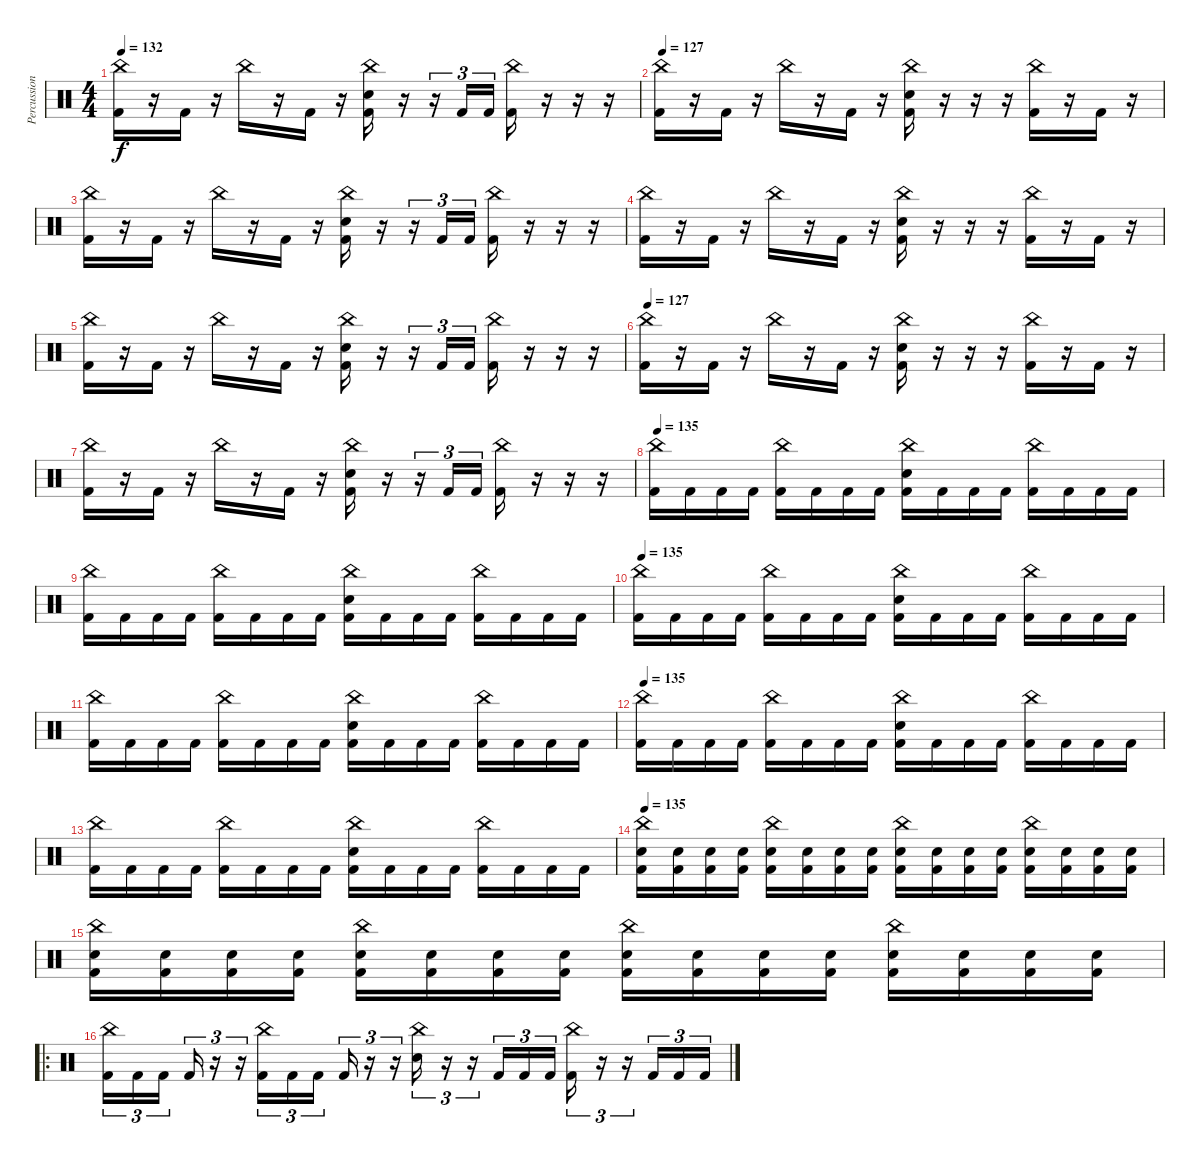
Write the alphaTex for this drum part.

\track ("Percussion" "Percussion") {instrument percussion}
\staff {score}
\articulation defaults
\ts (4 4)
\tempo 132
\clef neutral
\ks c
("China (hit)" "Kick (hit) 2").16{dy f} r.16 "Kick (hit) 2".16 r.16 "China (hit)".16 r.16 "Kick (hit) 2".16 r.16 ("China (hit)" "Kick (hit) 2" "Electric Snare (hit)").16 r.16 r.16{tu (3 2)} "Kick (hit) 2".16{tu (3 2)} "Kick (hit) 2".16{tu (3 2)} ("China (hit)" "Kick (hit) 2").16 r.16 r.16 r.16 |
\tempo 127
("China (hit)" "Kick (hit) 2").16 r.16 "Kick (hit) 2".16 r.16 "China (hit)".16 r.16 "Kick (hit) 2".16 r.16 ("China (hit)" "Kick (hit) 2" "Electric Snare (hit)").16 r.16 r.16 r.16 ("China (hit)" "Kick (hit) 2").16 r.16 "Kick (hit) 2".16 r.16 |
("China (hit)" "Kick (hit) 2").16 r.16 "Kick (hit) 2".16 r.16 "China (hit)".16 r.16 "Kick (hit) 2".16 r.16 ("China (hit)" "Kick (hit) 2" "Electric Snare (hit)").16 r.16 r.16{tu (3 2)} "Kick (hit) 2".16{tu (3 2)} "Kick (hit) 2".16{tu (3 2)} ("China (hit)" "Kick (hit) 2").16 r.16 r.16 r.16 |
("China (hit)" "Kick (hit) 2").16 r.16 "Kick (hit) 2".16 r.16 "China (hit)".16 r.16 "Kick (hit) 2".16 r.16 ("China (hit)" "Kick (hit) 2" "Electric Snare (hit)").16 r.16 r.16 r.16 ("China (hit)" "Kick (hit) 2").16 r.16 "Kick (hit) 2".16 r.16 |
("China (hit)" "Kick (hit) 2").16 r.16 "Kick (hit) 2".16 r.16 "China (hit)".16 r.16 "Kick (hit) 2".16 r.16 ("China (hit)" "Kick (hit) 2" "Electric Snare (hit)").16 r.16 r.16{tu (3 2)} "Kick (hit) 2".16{tu (3 2)} "Kick (hit) 2".16{tu (3 2)} ("China (hit)" "Kick (hit) 2").16 r.16 r.16 r.16 |
\tempo 127
("China (hit)" "Kick (hit) 2").16 r.16 "Kick (hit) 2".16 r.16 "China (hit)".16 r.16 "Kick (hit) 2".16 r.16 ("China (hit)" "Kick (hit) 2" "Electric Snare (hit)").16 r.16 r.16 r.16 ("China (hit)" "Kick (hit) 2").16 r.16 "Kick (hit) 2".16 r.16 |
("China (hit)" "Kick (hit) 2").16 r.16 "Kick (hit) 2".16 r.16 "China (hit)".16 r.16 "Kick (hit) 2".16 r.16 ("China (hit)" "Kick (hit) 2" "Electric Snare (hit)").16 r.16 r.16{tu (3 2)} "Kick (hit) 2".16{tu (3 2)} "Kick (hit) 2".16{tu (3 2)} ("China (hit)" "Kick (hit) 2").16 r.16 r.16 r.16 |
\tempo 135
("China (hit)" "Kick (hit) 2").16 "Kick (hit) 2".16 "Kick (hit) 2".16 "Kick (hit) 2".16 ("China (hit)" "Kick (hit) 2").16 "Kick (hit) 2".16 "Kick (hit) 2".16 "Kick (hit) 2".16 ("China (hit)" "Kick (hit) 2" "Electric Snare (hit)").16 "Kick (hit) 2".16 "Kick (hit) 2".16 "Kick (hit) 2".16 ("China (hit)" "Kick (hit) 2").16 "Kick (hit) 2".16 "Kick (hit) 2".16 "Kick (hit) 2".16 |
("China (hit)" "Kick (hit) 2").16 "Kick (hit) 2".16 "Kick (hit) 2".16 "Kick (hit) 2".16 ("China (hit)" "Kick (hit) 2").16 "Kick (hit) 2".16 "Kick (hit) 2".16 "Kick (hit) 2".16 ("China (hit)" "Kick (hit) 2" "Electric Snare (hit)").16 "Kick (hit) 2".16 "Kick (hit) 2".16 "Kick (hit) 2".16 ("China (hit)" "Kick (hit) 2").16 "Kick (hit) 2".16 "Kick (hit) 2".16 "Kick (hit) 2".16 |
\tempo 135
("China (hit)" "Kick (hit) 2").16 "Kick (hit) 2".16 "Kick (hit) 2".16 "Kick (hit) 2".16 ("China (hit)" "Kick (hit) 2").16 "Kick (hit) 2".16 "Kick (hit) 2".16 "Kick (hit) 2".16 ("China (hit)" "Kick (hit) 2" "Electric Snare (hit)").16 "Kick (hit) 2".16 "Kick (hit) 2".16 "Kick (hit) 2".16 ("China (hit)" "Kick (hit) 2").16 "Kick (hit) 2".16 "Kick (hit) 2".16 "Kick (hit) 2".16 |
("China (hit)" "Kick (hit) 2").16 "Kick (hit) 2".16 "Kick (hit) 2".16 "Kick (hit) 2".16 ("China (hit)" "Kick (hit) 2").16 "Kick (hit) 2".16 "Kick (hit) 2".16 "Kick (hit) 2".16 ("China (hit)" "Kick (hit) 2" "Electric Snare (hit)").16 "Kick (hit) 2".16 "Kick (hit) 2".16 "Kick (hit) 2".16 ("China (hit)" "Kick (hit) 2").16 "Kick (hit) 2".16 "Kick (hit) 2".16 "Kick (hit) 2".16 |
\tempo 135
("China (hit)" "Kick (hit) 2").16 "Kick (hit) 2".16 "Kick (hit) 2".16 "Kick (hit) 2".16 ("China (hit)" "Kick (hit) 2").16 "Kick (hit) 2".16 "Kick (hit) 2".16 "Kick (hit) 2".16 ("China (hit)" "Kick (hit) 2" "Electric Snare (hit)").16 "Kick (hit) 2".16 "Kick (hit) 2".16 "Kick (hit) 2".16 ("China (hit)" "Kick (hit) 2").16 "Kick (hit) 2".16 "Kick (hit) 2".16 "Kick (hit) 2".16 |
("China (hit)" "Kick (hit) 2").16 "Kick (hit) 2".16 "Kick (hit) 2".16 "Kick (hit) 2".16 ("China (hit)" "Kick (hit) 2").16 "Kick (hit) 2".16 "Kick (hit) 2".16 "Kick (hit) 2".16 ("China (hit)" "Kick (hit) 2" "Electric Snare (hit)").16 "Kick (hit) 2".16 "Kick (hit) 2".16 "Kick (hit) 2".16 ("China (hit)" "Kick (hit) 2").16 "Kick (hit) 2".16 "Kick (hit) 2".16 "Kick (hit) 2".16 |
\tempo 135
("China (hit)" "Kick (hit) 2" "Electric Snare (hit)").16 ("Kick (hit) 2" "Electric Snare (hit)").16 ("Kick (hit) 2" "Electric Snare (hit)").16 ("Kick (hit) 2" "Electric Snare (hit)").16 ("China (hit)" "Kick (hit) 2" "Electric Snare (hit)").16 ("Kick (hit) 2" "Electric Snare (hit)").16 ("Kick (hit) 2" "Electric Snare (hit)").16 ("Kick (hit) 2" "Electric Snare (hit)").16 ("China (hit)" "Kick (hit) 2" "Electric Snare (hit)").16 ("Kick (hit) 2" "Electric Snare (hit)").16 ("Kick (hit) 2" "Electric Snare (hit)").16 ("Kick (hit) 2" "Electric Snare (hit)").16 ("China (hit)" "Kick (hit) 2" "Electric Snare (hit)").16 ("Kick (hit) 2" "Electric Snare (hit)").16 ("Kick (hit) 2" "Electric Snare (hit)").16 ("Kick (hit) 2" "Electric Snare (hit)").16 |
("China (hit)" "Kick (hit) 2" "Electric Snare (hit)").16 ("Kick (hit) 2" "Electric Snare (hit)").16 ("Kick (hit) 2" "Electric Snare (hit)").16 ("Kick (hit) 2" "Electric Snare (hit)").16 ("China (hit)" "Kick (hit) 2" "Electric Snare (hit)").16 ("Kick (hit) 2" "Electric Snare (hit)").16 ("Kick (hit) 2" "Electric Snare (hit)").16 ("Kick (hit) 2" "Electric Snare (hit)").16 ("China (hit)" "Kick (hit) 2" "Electric Snare (hit)").16 ("Kick (hit) 2" "Electric Snare (hit)").16 ("Kick (hit) 2" "Electric Snare (hit)").16 ("Kick (hit) 2" "Electric Snare (hit)").16 ("China (hit)" "Kick (hit) 2" "Electric Snare (hit)").16 ("Kick (hit) 2" "Electric Snare (hit)").16 ("Kick (hit) 2" "Electric Snare (hit)").16 ("Kick (hit) 2" "Electric Snare (hit)").16 |
\ro
("Kick (hit) 2" "China (hit)").16{tu (3 2)} "Kick (hit) 2".16{tu (3 2)} "Kick (hit) 2".16{tu (3 2) beam splitsecondary} "Kick (hit) 2".16{tu (3 2)} r.16{tu (3 2)} r.16{tu (3 2)} ("Kick (hit) 2" "China (hit)").16{tu (3 2)} "Kick (hit) 2".16{tu (3 2)} "Kick (hit) 2".16{tu (3 2) beam splitsecondary} "Kick (hit) 2".16{tu (3 2)} r.16{tu (3 2)} r.16{tu (3 2)} ("China (hit)" "Electric Snare (hit)").16{tu (3 2)} r.16{tu (3 2)} r.16{tu (3 2)} "Kick (hit) 2".16{tu (3 2)} "Kick (hit) 2".16{tu (3 2)} "Kick (hit) 2".16{tu (3 2)} ("Kick (hit) 2" "China (hit)").16{tu (3 2)} r.16{tu (3 2)} r.16{tu (3 2)} "Kick (hit) 2".16{tu (3 2)} "Kick (hit) 2".16{tu (3 2)} "Kick (hit) 2".16{tu (3 2)}
